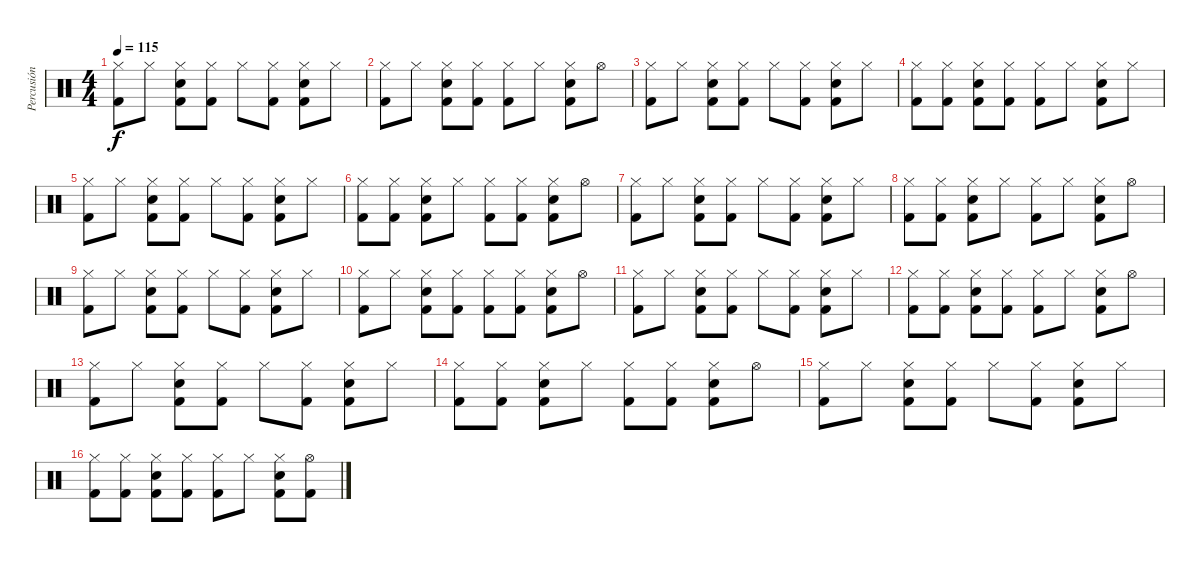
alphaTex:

\track ("Percusión" "Percusión") {instrument percussion}
\staff {score}
\articulation defaults
\ts (4 4)
\tempo 115
\clef neutral
\ks c
("Hi-Hat (closed)" "Kick (hit) 2").8{dy f} "Hi-Hat (closed)".8 ("Hi-Hat (closed)" "Electric Snare (hit)" "Kick (hit) 2").8 ("Hi-Hat (closed)" "Kick (hit) 2").8 "Hi-Hat (closed)".8 ("Hi-Hat (closed)" "Kick (hit) 2").8 ("Hi-Hat (closed)" "Electric Snare (hit)" "Kick (hit) 2").8 "Hi-Hat (closed)".8 |
("Hi-Hat (closed)" "Kick (hit) 2").8 "Hi-Hat (closed)".8 ("Hi-Hat (closed)" "Electric Snare (hit)" "Kick (hit) 2").8 ("Hi-Hat (closed)" "Kick (hit) 2").8 ("Hi-Hat (closed)" "Kick (hit) 2").8 "Hi-Hat (closed)".8 ("Hi-Hat (closed)" "Electric Snare (hit)" "Kick (hit) 2").8 "Hi-Hat (open)".8 |
("Hi-Hat (closed)" "Kick (hit) 2").8 "Hi-Hat (closed)".8 ("Hi-Hat (closed)" "Electric Snare (hit)" "Kick (hit) 2").8 ("Hi-Hat (closed)" "Kick (hit) 2").8 "Hi-Hat (closed)".8 ("Hi-Hat (closed)" "Kick (hit) 2").8 ("Hi-Hat (closed)" "Electric Snare (hit)" "Kick (hit) 2").8 "Hi-Hat (closed)".8 |
("Hi-Hat (closed)" "Kick (hit) 2").8 ("Hi-Hat (closed)" "Kick (hit) 2").8 ("Hi-Hat (closed)" "Electric Snare (hit)" "Kick (hit) 2").8 ("Hi-Hat (closed)" "Kick (hit) 2").8 ("Hi-Hat (closed)" "Kick (hit) 2").8 "Hi-Hat (closed)".8 ("Hi-Hat (closed)" "Electric Snare (hit)" "Kick (hit) 2").8 "Hi-Hat (closed)".8 |
("Hi-Hat (closed)" "Kick (hit) 2").8 "Hi-Hat (closed)".8 ("Hi-Hat (closed)" "Electric Snare (hit)" "Kick (hit) 2").8 ("Hi-Hat (closed)" "Kick (hit) 2").8 "Hi-Hat (closed)".8 ("Hi-Hat (closed)" "Kick (hit) 2").8 ("Hi-Hat (closed)" "Electric Snare (hit)" "Kick (hit) 2").8 "Hi-Hat (closed)".8 |
("Hi-Hat (closed)" "Kick (hit) 2").8 ("Hi-Hat (closed)" "Kick (hit) 2").8 ("Hi-Hat (closed)" "Electric Snare (hit)" "Kick (hit) 2").8 "Hi-Hat (closed)".8 ("Hi-Hat (closed)" "Kick (hit) 2").8 ("Hi-Hat (closed)" "Kick (hit) 2").8 ("Hi-Hat (closed)" "Electric Snare (hit)" "Kick (hit) 2").8 "Hi-Hat (open)".8 |
("Hi-Hat (closed)" "Kick (hit) 2").8 "Hi-Hat (closed)".8 ("Hi-Hat (closed)" "Electric Snare (hit)" "Kick (hit) 2").8 ("Hi-Hat (closed)" "Kick (hit) 2").8 "Hi-Hat (closed)".8 ("Hi-Hat (closed)" "Kick (hit) 2").8 ("Hi-Hat (closed)" "Electric Snare (hit)" "Kick (hit) 2").8 "Hi-Hat (closed)".8 |
("Hi-Hat (closed)" "Kick (hit) 2").8 ("Hi-Hat (closed)" "Kick (hit) 2").8 ("Hi-Hat (closed)" "Electric Snare (hit)" "Kick (hit) 2").8 "Hi-Hat (closed)".8 ("Hi-Hat (closed)" "Kick (hit) 2").8 "Hi-Hat (closed)".8 ("Hi-Hat (closed)" "Electric Snare (hit)" "Kick (hit) 2").8 "Hi-Hat (open)".8 |
("Hi-Hat (closed)" "Kick (hit) 2").8 "Hi-Hat (closed)".8 ("Hi-Hat (closed)" "Electric Snare (hit)" "Kick (hit) 2").8 ("Hi-Hat (closed)" "Kick (hit) 2").8 "Hi-Hat (closed)".8 ("Hi-Hat (closed)" "Kick (hit) 2").8 ("Hi-Hat (closed)" "Electric Snare (hit)" "Kick (hit) 2").8 "Hi-Hat (closed)".8 |
("Hi-Hat (closed)" "Kick (hit) 2").8 "Hi-Hat (closed)".8 ("Hi-Hat (closed)" "Electric Snare (hit)" "Kick (hit) 2").8 ("Hi-Hat (closed)" "Kick (hit) 2").8 ("Hi-Hat (closed)" "Kick (hit) 2").8 ("Hi-Hat (closed)" "Kick (hit) 2").8 ("Hi-Hat (closed)" "Electric Snare (hit)" "Kick (hit) 2").8 "Hi-Hat (open)".8 |
("Hi-Hat (closed)" "Kick (hit) 2").8 "Hi-Hat (closed)".8 ("Hi-Hat (closed)" "Electric Snare (hit)" "Kick (hit) 2").8 ("Hi-Hat (closed)" "Kick (hit) 2").8 "Hi-Hat (closed)".8 ("Hi-Hat (closed)" "Kick (hit) 2").8 ("Hi-Hat (closed)" "Electric Snare (hit)" "Kick (hit) 2").8 "Hi-Hat (closed)".8 |
("Hi-Hat (closed)" "Kick (hit) 2").8 ("Hi-Hat (closed)" "Kick (hit) 2").8 ("Hi-Hat (closed)" "Electric Snare (hit)" "Kick (hit) 2").8 ("Hi-Hat (closed)" "Kick (hit) 2").8 ("Hi-Hat (closed)" "Kick (hit) 2").8 "Hi-Hat (closed)".8 ("Hi-Hat (closed)" "Electric Snare (hit)" "Kick (hit) 2").8 "Hi-Hat (open)".8 |
("Hi-Hat (closed)" "Kick (hit) 2").8 "Hi-Hat (closed)".8 ("Hi-Hat (closed)" "Electric Snare (hit)" "Kick (hit) 2").8 ("Hi-Hat (closed)" "Kick (hit) 2").8 "Hi-Hat (closed)".8 ("Hi-Hat (closed)" "Kick (hit) 2").8 ("Hi-Hat (closed)" "Electric Snare (hit)" "Kick (hit) 2").8 "Hi-Hat (closed)".8 |
("Hi-Hat (closed)" "Kick (hit) 2").8 ("Hi-Hat (closed)" "Kick (hit) 2").8 ("Hi-Hat (closed)" "Electric Snare (hit)" "Kick (hit) 2").8 "Hi-Hat (closed)".8 ("Hi-Hat (closed)" "Kick (hit) 2").8 ("Hi-Hat (closed)" "Kick (hit) 2").8 ("Hi-Hat (closed)" "Electric Snare (hit)" "Kick (hit) 2").8 "Hi-Hat (open)".8 |
("Hi-Hat (closed)" "Kick (hit) 2").8 "Hi-Hat (closed)".8 ("Hi-Hat (closed)" "Electric Snare (hit)" "Kick (hit) 2").8 ("Hi-Hat (closed)" "Kick (hit) 2").8 "Hi-Hat (closed)".8 ("Hi-Hat (closed)" "Kick (hit) 2").8 ("Hi-Hat (closed)" "Electric Snare (hit)" "Kick (hit) 2").8 "Hi-Hat (closed)".8 |
("Hi-Hat (closed)" "Kick (hit) 2").8 ("Hi-Hat (closed)" "Kick (hit) 2").8 ("Hi-Hat (closed)" "Electric Snare (hit)" "Kick (hit) 2").8 ("Hi-Hat (closed)" "Kick (hit) 2").8 ("Hi-Hat (closed)" "Kick (hit) 2").8 "Hi-Hat (closed)".8 ("Hi-Hat (closed)" "Electric Snare (hit)" "Kick (hit) 2").8 ("Hi-Hat (open)" "Kick (hit) 2").8
